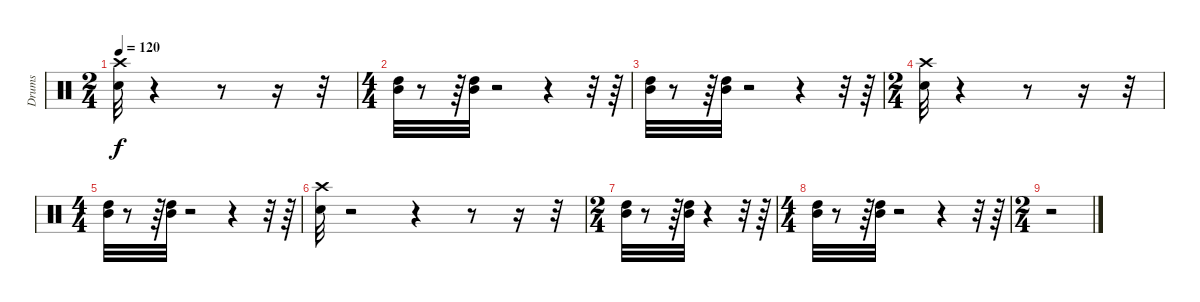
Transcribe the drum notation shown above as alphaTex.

\track ("Drums" "Drums") {instrument percussion}
\staff {score}
\articulation defaults
\ts (2 4)
\tempo 120
\clef neutral
\ks c
("Snare (hit) 2" "Crash high (hit)").32{dy f} r.4 r.8 r.16 r.32 |
\ts (4 4)
("Mid Tom (hit)" "High Tom (hit)").32 r.8 r.64 ("Mid Tom (hit)" "High Tom (hit)").32 r.2 r.4 r.32 r.64 |
("Mid Tom (hit)" "High Tom (hit)").32 r.8 r.64 ("Mid Tom (hit)" "High Tom (hit)").32 r.2 r.4 r.32 r.64 |
\ts (2 4)
("Snare (hit) 2" "Crash high (hit)").32 r.4 r.8 r.16 r.32 |
\ts (4 4)
("Mid Tom (hit)" "High Tom (hit)").32 r.8 r.64 ("Mid Tom (hit)" "High Tom (hit)").32 r.2 r.4 r.32 r.64 |
("Snare (hit) 2" "Crash high (hit)").32 r.2 r.4 r.8 r.16 r.32 |
\ts (2 4)
("Mid Tom (hit)" "High Tom (hit)").32 r.8 r.64 ("Mid Tom (hit)" "High Tom (hit)").32 r.4 r.32 r.64 |
\ts (4 4)
("Mid Tom (hit)" "High Tom (hit)").32 r.8 r.64 ("Mid Tom (hit)" "High Tom (hit)").32 r.2 r.4 r.32 r.64 |
\ts (2 4)
r.2
